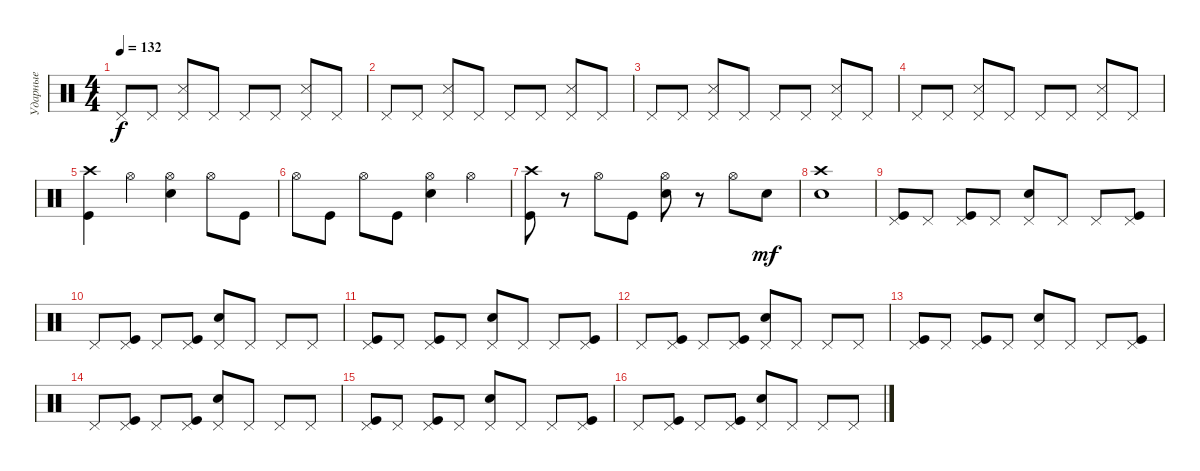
\track ("Ударные" "Ударные") {instrument percussion}
\staff {score}
\articulation defaults
\ts (4 4)
\tempo 132
\clef neutral
\ks c "Pedal Hi-Hat (hit)".8{dy f} "Pedal Hi-Hat (hit)".8
("Pedal Hi-Hat (hit)" "Metronome (hit)").8 "Pedal Hi-Hat (hit)".8 "Pedal Hi-Hat (hit)".8 "Pedal Hi-Hat (hit)".8 ("Pedal Hi-Hat (hit)" "Metronome (hit)").8 "Pedal Hi-Hat (hit)".8 |
"Pedal Hi-Hat (hit)".8 "Pedal Hi-Hat (hit)".8 ("Pedal Hi-Hat (hit)" "Metronome (hit)").8 "Pedal Hi-Hat (hit)".8 "Pedal Hi-Hat (hit)".8 "Pedal Hi-Hat (hit)".8 ("Metronome (hit)" "Pedal Hi-Hat (hit)").8 "Pedal Hi-Hat (hit)".8 |
"Pedal Hi-Hat (hit)".8 "Pedal Hi-Hat (hit)".8 ("Pedal Hi-Hat (hit)" "Metronome (hit)").8 "Pedal Hi-Hat (hit)".8 "Pedal Hi-Hat (hit)".8 "Pedal Hi-Hat (hit)".8 ("Metronome (hit)" "Pedal Hi-Hat (hit)").8 "Pedal Hi-Hat (hit)".8 |
"Pedal Hi-Hat (hit)".8 "Pedal Hi-Hat (hit)".8 ("Pedal Hi-Hat (hit)" "Metronome (hit)").8 "Pedal Hi-Hat (hit)".8 "Pedal Hi-Hat (hit)".8 "Pedal Hi-Hat (hit)".8 ("Metronome (hit)" "Pedal Hi-Hat (hit)").8 "Pedal Hi-Hat (hit)".8 |
("Kick (hit)" "Crash high (hit)").4 "Hi-Hat (open)".4 ("Snare (hit) 2" "Hi-Hat (open)").4 "Hi-Hat (open)".8 "Kick (hit)".8 |
"Hi-Hat (open)".8 "Kick (hit)".8 "Hi-Hat (open)".8 "Kick (hit)".8 ("Snare (hit) 2" "Hi-Hat (open)").4 "Hi-Hat (open)".4 |
("Crash high (hit)" "Kick (hit)").8 r.8 "Hi-Hat (open)".8 "Kick (hit)".8 ("Hi-Hat (open)" "Snare (hit) 2").8 r.8 "Hi-Hat (open)".8 "Snare (hit) 2".8{dy mf} |
("Snare (hit) 2" "Crash high (hit)").1 |
("Pedal Hi-Hat (hit)" "Kick (hit)").8 "Pedal Hi-Hat (hit)".8 ("Pedal Hi-Hat (hit)" "Kick (hit)").8 "Pedal Hi-Hat (hit)".8 ("Pedal Hi-Hat (hit)" "Snare (hit) 2").8 "Pedal Hi-Hat (hit)".8 "Pedal Hi-Hat (hit)".8 ("Pedal Hi-Hat (hit)" "Kick (hit)").8 |
"Pedal Hi-Hat (hit)".8 ("Pedal Hi-Hat (hit)" "Kick (hit)").8 "Pedal Hi-Hat (hit)".8 ("Pedal Hi-Hat (hit)" "Kick (hit)").8 ("Pedal Hi-Hat (hit)" "Snare (hit) 2").8 "Pedal Hi-Hat (hit)".8 "Pedal Hi-Hat (hit)".8 "Pedal Hi-Hat (hit)".8 |
("Pedal Hi-Hat (hit)" "Kick (hit)").8 "Pedal Hi-Hat (hit)".8 ("Pedal Hi-Hat (hit)" "Kick (hit)").8 "Pedal Hi-Hat (hit)".8 ("Pedal Hi-Hat (hit)" "Snare (hit) 2").8 "Pedal Hi-Hat (hit)".8 "Pedal Hi-Hat (hit)".8 ("Pedal Hi-Hat (hit)" "Kick (hit)").8 |
"Pedal Hi-Hat (hit)".8 ("Pedal Hi-Hat (hit)" "Kick (hit)").8 "Pedal Hi-Hat (hit)".8 ("Pedal Hi-Hat (hit)" "Kick (hit)").8 ("Pedal Hi-Hat (hit)" "Snare (hit) 2").8 "Pedal Hi-Hat (hit)".8 "Pedal Hi-Hat (hit)".8 "Pedal Hi-Hat (hit)".8 |
("Pedal Hi-Hat (hit)" "Kick (hit)").8 "Pedal Hi-Hat (hit)".8 ("Pedal Hi-Hat (hit)" "Kick (hit)").8 "Pedal Hi-Hat (hit)".8 ("Pedal Hi-Hat (hit)" "Snare (hit) 2").8 "Pedal Hi-Hat (hit)".8 "Pedal Hi-Hat (hit)".8 ("Pedal Hi-Hat (hit)" "Kick (hit)").8 |
"Pedal Hi-Hat (hit)".8 ("Pedal Hi-Hat (hit)" "Kick (hit)").8 "Pedal Hi-Hat (hit)".8 ("Pedal Hi-Hat (hit)" "Kick (hit)").8 ("Pedal Hi-Hat (hit)" "Snare (hit) 2").8 "Pedal Hi-Hat (hit)".8 "Pedal Hi-Hat (hit)".8 "Pedal Hi-Hat (hit)".8 |
("Pedal Hi-Hat (hit)" "Kick (hit)").8 "Pedal Hi-Hat (hit)".8 ("Pedal Hi-Hat (hit)" "Kick (hit)").8 "Pedal Hi-Hat (hit)".8 ("Pedal Hi-Hat (hit)" "Snare (hit) 2").8 "Pedal Hi-Hat (hit)".8 "Pedal Hi-Hat (hit)".8 ("Pedal Hi-Hat (hit)" "Kick (hit)").8 |
"Pedal Hi-Hat (hit)".8 ("Pedal Hi-Hat (hit)" "Kick (hit)").8 "Pedal Hi-Hat (hit)".8 ("Pedal Hi-Hat (hit)" "Kick (hit)").8 ("Pedal Hi-Hat (hit)" "Snare (hit) 2").8 "Pedal Hi-Hat (hit)".8 "Pedal Hi-Hat (hit)".8 "Pedal Hi-Hat (hit)".8
